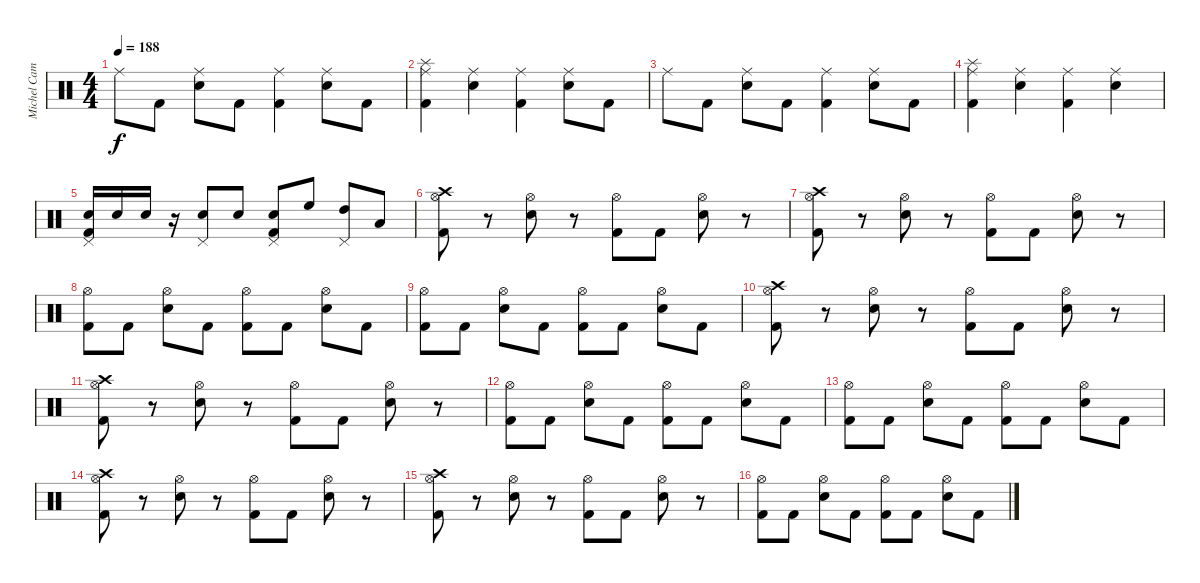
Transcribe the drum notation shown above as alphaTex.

\track ("Michel Camiade" "Michel Cam") {instrument percussion}
\staff {score}
\articulation defaults
\ts (4 4)
\tempo 188
\clef neutral
\ks c "Ride (middle)".8{dy f} "Kick (hit) 2".8
("Ride (middle)" "Snare (hit) 2").8 "Kick (hit) 2".8 ("Ride (middle)" "Kick (hit) 2").4 ("Ride (middle)" "Snare (hit) 2").8 "Kick (hit) 2".8 |
("Splash (hit)" "Ride (middle)" "Kick (hit) 2").4 ("Ride (middle)" "Snare (hit) 2").4 ("Ride (middle)" "Kick (hit) 2").4 ("Ride (middle)" "Snare (hit) 2").8 "Kick (hit) 2".8 |
"Ride (middle)".8 "Kick (hit) 2".8 ("Ride (middle)" "Snare (hit) 2").8 "Kick (hit) 2".8 ("Ride (middle)" "Kick (hit) 2").4 ("Ride (middle)" "Snare (hit) 2").8 "Kick (hit) 2".8 |
("Splash (hit)" "Ride (middle)" "Kick (hit) 2").4 ("Ride (middle)" "Snare (hit) 2").4 ("Ride (middle)" "Kick (hit) 2").4 ("Ride (middle)" "Snare (hit) 2").4 |
("Pedal Hi-Hat (hit)" "Snare (hit) 2" "Kick (hit) 2").16 "Snare (hit) 2".16 "Snare (hit) 2".16 r.16 ("Pedal Hi-Hat (hit)" "Snare (hit) 2").8 "Snare (hit) 2".8 ("Pedal Hi-Hat (hit)" "Snare (hit) 2" "Kick (hit) 2").8 "High Floor Tom (hit)".8 ("High Tom (hit)" "Pedal Hi-Hat (hit)").8 "Low Tom (hit)".8 |
("Crash high (hit)" "Hi-Hat (open)" "Kick (hit) 2").8 r.8 ("Hi-Hat (open)" "Snare (hit) 2").8 r.8 ("Hi-Hat (open)" "Kick (hit) 2").8 "Kick (hit) 2".8 ("Hi-Hat (open)" "Snare (hit) 2").8 r.8 |
("Crash high (hit)" "Hi-Hat (open)" "Kick (hit) 2").8 r.8 ("Hi-Hat (open)" "Snare (hit) 2").8 r.8 ("Hi-Hat (open)" "Kick (hit) 2").8 "Kick (hit) 2".8 ("Hi-Hat (open)" "Snare (hit) 2").8 r.8 |
("Hi-Hat (open)" "Kick (hit) 2").8 "Kick (hit) 2".8 ("Hi-Hat (open)" "Snare (hit) 2").8 "Kick (hit) 2".8 ("Hi-Hat (open)" "Kick (hit) 2").8 "Kick (hit) 2".8 ("Hi-Hat (open)" "Snare (hit) 2").8 "Kick (hit) 2".8 |
("Hi-Hat (open)" "Kick (hit) 2").8 "Kick (hit) 2".8 ("Hi-Hat (open)" "Snare (hit) 2").8 "Kick (hit) 2".8 ("Hi-Hat (open)" "Kick (hit) 2").8 "Kick (hit) 2".8 ("Hi-Hat (open)" "Snare (hit) 2").8 "Kick (hit) 2".8 |
("Crash high (hit)" "Hi-Hat (open)" "Kick (hit) 2").8 r.8 ("Hi-Hat (open)" "Snare (hit) 2").8 r.8 ("Hi-Hat (open)" "Kick (hit) 2").8 "Kick (hit) 2".8 ("Hi-Hat (open)" "Snare (hit) 2").8 r.8 |
("Crash high (hit)" "Hi-Hat (open)" "Kick (hit) 2").8 r.8 ("Hi-Hat (open)" "Snare (hit) 2").8 r.8 ("Hi-Hat (open)" "Kick (hit) 2").8 "Kick (hit) 2".8 ("Hi-Hat (open)" "Snare (hit) 2").8 r.8 |
("Hi-Hat (open)" "Kick (hit) 2").8 "Kick (hit) 2".8 ("Hi-Hat (open)" "Snare (hit) 2").8 "Kick (hit) 2".8 ("Hi-Hat (open)" "Kick (hit) 2").8 "Kick (hit) 2".8 ("Hi-Hat (open)" "Snare (hit) 2").8 "Kick (hit) 2".8 |
("Hi-Hat (open)" "Kick (hit) 2").8 "Kick (hit) 2".8 ("Hi-Hat (open)" "Snare (hit) 2").8 "Kick (hit) 2".8 ("Hi-Hat (open)" "Kick (hit) 2").8 "Kick (hit) 2".8 ("Hi-Hat (open)" "Snare (hit) 2").8 "Kick (hit) 2".8 |
("Crash high (hit)" "Hi-Hat (open)" "Kick (hit) 2").8 r.8 ("Hi-Hat (open)" "Snare (hit) 2").8 r.8 ("Hi-Hat (open)" "Kick (hit) 2").8 "Kick (hit) 2".8 ("Hi-Hat (open)" "Snare (hit) 2").8 r.8 |
("Crash high (hit)" "Hi-Hat (open)" "Kick (hit) 2").8 r.8 ("Hi-Hat (open)" "Snare (hit) 2").8 r.8 ("Hi-Hat (open)" "Kick (hit) 2").8 "Kick (hit) 2".8 ("Hi-Hat (open)" "Snare (hit) 2").8 r.8 |
("Hi-Hat (open)" "Kick (hit) 2").8 "Kick (hit) 2".8 ("Hi-Hat (open)" "Snare (hit) 2").8 "Kick (hit) 2".8 ("Hi-Hat (open)" "Kick (hit) 2").8 "Kick (hit) 2".8 ("Hi-Hat (open)" "Snare (hit) 2").8 "Kick (hit) 2".8
